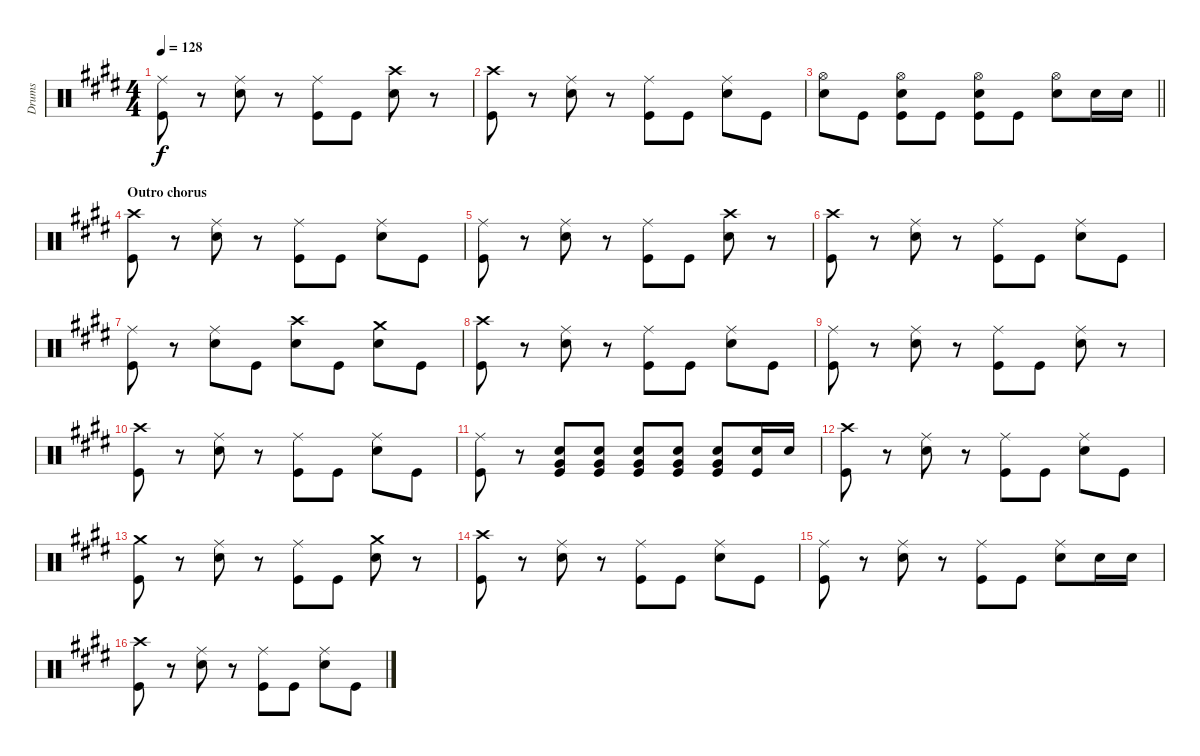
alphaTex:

\track ("Drums" "Drums") {instrument percussion}
\staff {score}
\articulation defaults
\ts (4 4)
\tempo 128
\clef neutral
\ks e
("Ride (middle)" "Kick (hit)").8{dy f} r.8 ("Ride (middle)" "Snare (hit) 2").8 r.8 ("Ride (middle)" "Kick (hit)").8 "Kick (hit)".8 ("Crash high (hit)" "Snare (hit) 2").8 r.8 |
("Crash high (hit)" "Kick (hit)").8 r.8 ("Ride (middle)" "Snare (hit) 2").8 r.8 ("Ride (middle)" "Kick (hit)").8 "Kick (hit)".8 ("Ride (middle)" "Snare (hit) 2").8 "Kick (hit)".8 |
\barLineRight lightlight
("Hi-Hat (open)" "Snare (hit) 2").8 "Kick (hit)".8 ("Hi-Hat (open)" "Snare (hit) 2" "Kick (hit)").8 "Kick (hit)".8 ("Hi-Hat (open)" "Snare (hit) 2" "Kick (hit)").8 "Kick (hit)".8 ("Hi-Hat (open)" "Snare (hit) 2").8 "Snare (hit) 2".16 "Snare (hit) 2".16 |
\section ("" "Outro chorus")
("Crash high (hit)" "Kick (hit)").8 r.8 ("Ride (middle)" "Snare (hit) 2").8 r.8 ("Ride (middle)" "Kick (hit)").8 "Kick (hit)".8 ("Ride (middle)" "Snare (hit) 2").8 "Kick (hit)".8 |
("Ride (middle)" "Kick (hit)").8 r.8 ("Ride (middle)" "Snare (hit) 2").8 r.8 ("Ride (middle)" "Kick (hit)").8 "Kick (hit)".8 ("Crash high (hit)" "Snare (hit) 2").8 r.8 |
("Crash high (hit)" "Kick (hit)").8 r.8 ("Ride (middle)" "Snare (hit) 2").8 r.8 ("Ride (middle)" "Kick (hit)").8 "Kick (hit)".8 ("Ride (middle)" "Snare (hit) 2").8 "Kick (hit)".8 |
("Ride (middle)" "Kick (hit)").8 r.8 ("Ride (middle)" "Snare (hit) 2").8 "Kick (hit)".8 ("Crash high (hit)" "Snare (hit) 2").8 "Kick (hit)".8 ("Crash medium (hit)" "Snare (hit) 2").8 "Kick (hit)".8 |
("Crash high (hit)" "Kick (hit)").8 r.8 ("Ride (middle)" "Snare (hit) 2").8 r.8 ("Ride (middle)" "Kick (hit)").8 "Kick (hit)".8 ("Ride (middle)" "Snare (hit) 2").8 "Kick (hit)".8 |
("Ride (middle)" "Kick (hit)").8 r.8 ("Ride (middle)" "Snare (hit) 2").8 r.8 ("Ride (middle)" "Kick (hit)").8 "Kick (hit)".8 ("Ride (middle)" "Snare (hit) 2").8 r.8 |
("Crash high (hit)" "Kick (hit)").8 r.8 ("Ride (middle)" "Snare (hit) 2").8 r.8 ("Ride (middle)" "Kick (hit)").8 "Kick (hit)".8 ("Ride (middle)" "Snare (hit) 2").8 "Kick (hit)".8 |
("Ride (middle)" "Kick (hit)").8 r.8 ("Very Low Tom (hit)" "Snare (hit) 2" "Kick (hit)").8 ("Very Low Tom (hit)" "Snare (hit) 2" "Kick (hit)").8 ("Very Low Tom (hit)" "Snare (hit) 2" "Kick (hit)").8 ("Very Low Tom (hit)" "Snare (hit) 2" "Kick (hit)").8 ("Very Low Tom (hit)" "Snare (hit) 2" "Kick (hit)").8 ("Snare (hit) 2" "Kick (hit)").16 "Snare (hit) 2".16 |
("Crash high (hit)" "Kick (hit)").8 r.8 ("Ride (middle)" "Snare (hit) 2").8 r.8 ("Ride (middle)" "Kick (hit)").8 "Kick (hit)".8 ("Ride (middle)" "Snare (hit) 2").8 "Kick (hit)".8 |
("Crash medium (hit)" "Kick (hit)").8 r.8 ("Ride (middle)" "Snare (hit) 2").8 r.8 ("Ride (middle)" "Kick (hit)").8 "Kick (hit)".8 ("Crash medium (hit)" "Snare (hit) 2").8 r.8 |
("Crash high (hit)" "Kick (hit)").8 r.8 ("Ride (middle)" "Snare (hit) 2").8 r.8 ("Ride (middle)" "Kick (hit)").8 "Kick (hit)".8 ("Ride (middle)" "Snare (hit) 2").8 "Kick (hit)".8 |
("Ride (middle)" "Kick (hit)").8 r.8 ("Ride (middle)" "Snare (hit) 2").8 r.8 ("Ride (middle)" "Kick (hit)").8 "Kick (hit)".8 ("Ride (middle)" "Snare (hit) 2").8 "Snare (hit) 2".16 "Snare (hit) 2".16 |
("Crash high (hit)" "Kick (hit)").8 r.8 ("Ride (middle)" "Snare (hit) 2").8 r.8 ("Ride (middle)" "Kick (hit)").8 "Kick (hit)".8 ("Ride (middle)" "Snare (hit) 2").8 "Kick (hit)".8
